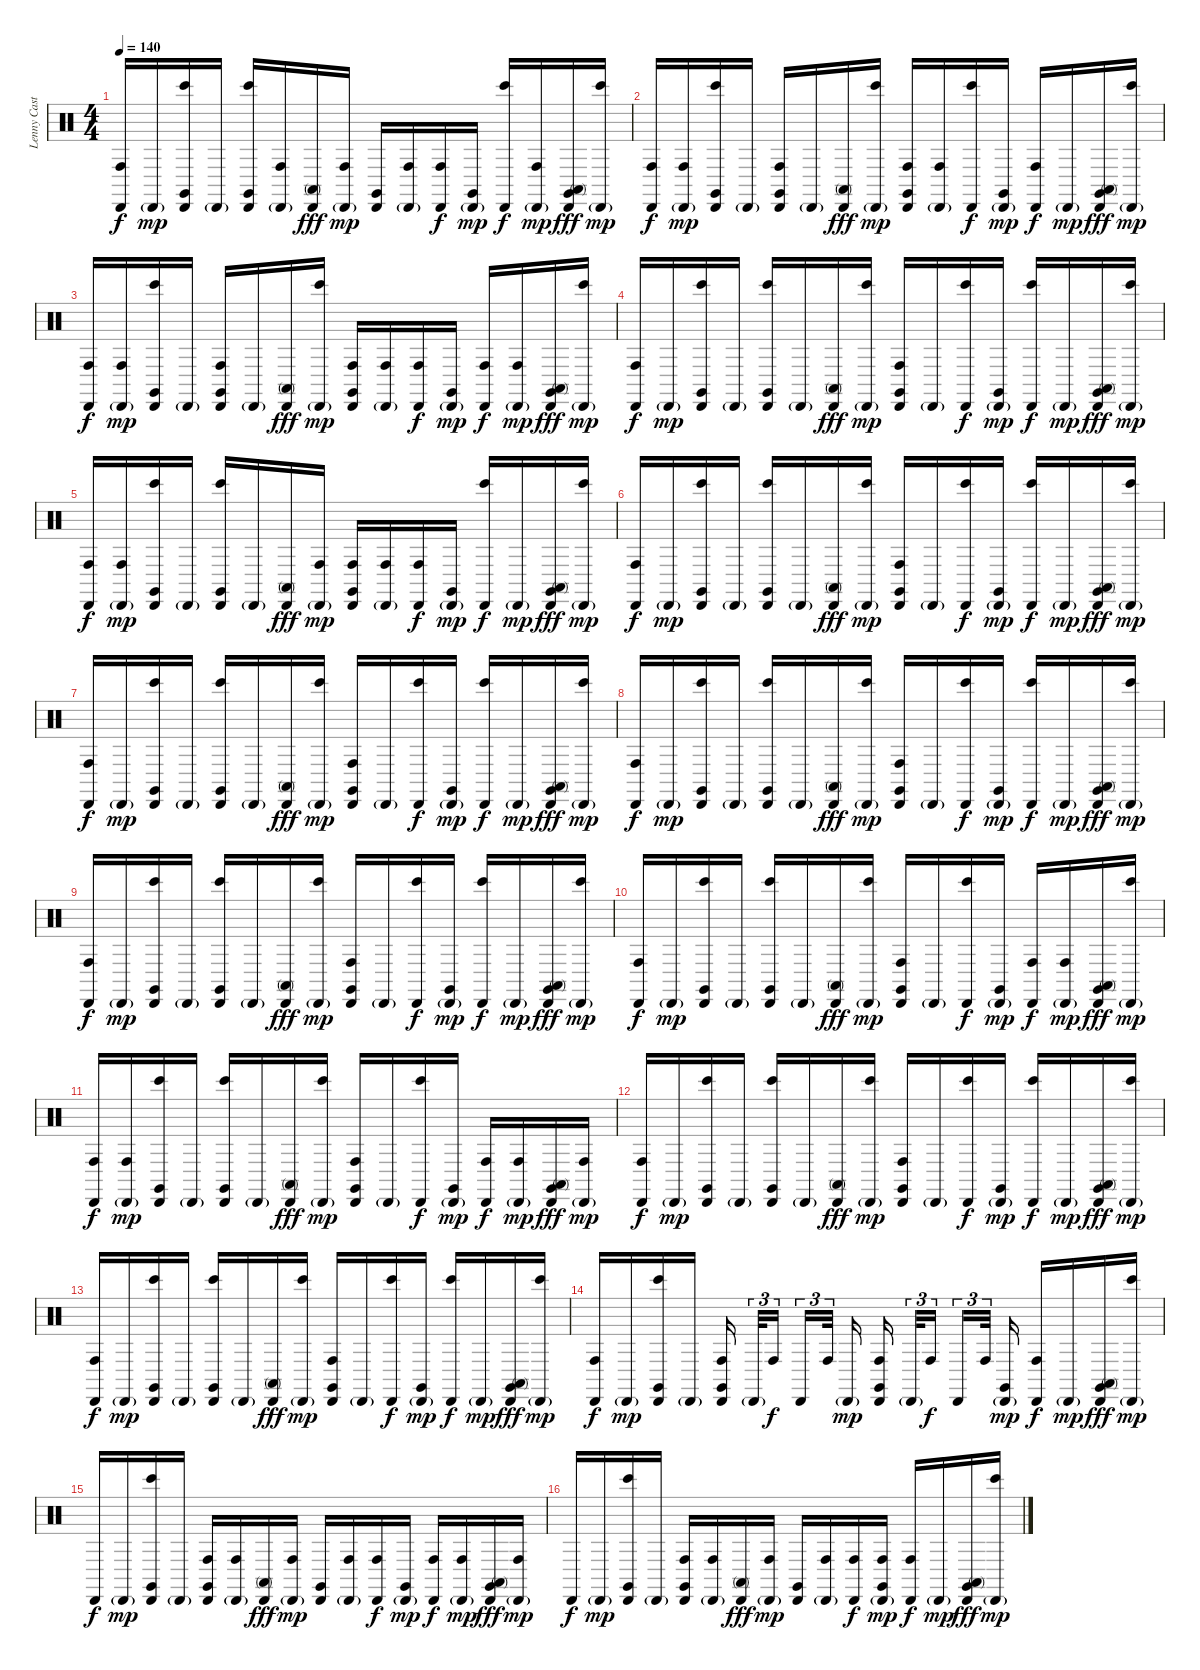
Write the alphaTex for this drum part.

\track ("Lenny Castro - Percussion" "Lenny Cast") {instrument percussion}
\staff {score}
\articulation defaults
\ts (4 4)
\tempo 140
\clef neutral
\ks c
("Cabasa (hit)" "Conga high (hit)").16{dy f} "Cabasa (hit)"{g}.16{dy mp} ("Claves (hit)" "Cabasa (hit)" "Bongo High (hit)").16 "Cabasa (hit)"{g}.16 ("Claves (hit)" "Cabasa (hit)" "Bongo High (hit)").16 ("Cabasa (hit)"{g} "Conga high (hit)").16 ("Cabasa (hit)" "Conga high (mute)").16{dy fff} ("Cabasa (hit)"{g} "Conga high (hit)").16{dy mp} ("Claves (hit)" "Cabasa (hit)").16 ("Cabasa (hit)"{g} "Conga high (hit)").16 ("Cabasa (hit)" "Conga high (hit)").16{dy f} ("Claves (hit)" "Cabasa (hit)"{g}).16{dy mp} ("Cabasa (hit)" "Bongo High (hit)").16{dy f} ("Cabasa (hit)"{g} "Conga high (hit)").16{dy mp} ("Claves (hit)" "Cabasa (hit)" "Conga high (mute)").16{dy fff} ("Cabasa (hit)"{g} "Bongo High (hit)").16{dy mp} |
("Cabasa (hit)" "Conga high (hit)").16{dy f} ("Cabasa (hit)"{g} "Conga high (hit)").16{dy mp} ("Claves (hit)" "Cabasa (hit)" "Bongo High (hit)").16 "Cabasa (hit)"{g}.16 ("Claves (hit)" "Cabasa (hit)" "Conga high (hit)").16 "Cabasa (hit)"{g}.16 ("Cabasa (hit)" "Conga high (mute)").16{dy fff} ("Cabasa (hit)"{g} "Bongo High (hit)").16{dy mp} ("Claves (hit)" "Cabasa (hit)" "Conga high (hit)").16 ("Cabasa (hit)"{g} "Conga high (hit)").16 ("Cabasa (hit)" "Bongo High (hit)").16{dy f} ("Claves (hit)" "Cabasa (hit)"{g}).16{dy mp} ("Cabasa (hit)" "Conga high (hit)").16{dy f} "Cabasa (hit)"{g}.16{dy mp} ("Claves (hit)" "Cabasa (hit)" "Conga high (mute)").16{dy fff} ("Cabasa (hit)"{g} "Bongo High (hit)").16{dy mp} |
("Cabasa (hit)" "Conga high (hit)").16{dy f} ("Cabasa (hit)"{g} "Conga high (hit)").16{dy mp} ("Claves (hit)" "Cabasa (hit)" "Bongo High (hit)").16 "Cabasa (hit)"{g}.16 ("Claves (hit)" "Cabasa (hit)" "Conga high (hit)").16 "Cabasa (hit)"{g}.16 ("Cabasa (hit)" "Conga high (mute)").16{dy fff} ("Cabasa (hit)"{g} "Bongo High (hit)").16{dy mp} ("Claves (hit)" "Cabasa (hit)" "Conga high (hit)").16 ("Cabasa (hit)"{g} "Conga high (hit)").16 ("Cabasa (hit)" "Conga high (hit)").16{dy f} ("Claves (hit)" "Cabasa (hit)"{g}).16{dy mp} ("Cabasa (hit)" "Conga high (hit)").16{dy f} ("Cabasa (hit)"{g} "Conga high (hit)").16{dy mp} ("Claves (hit)" "Cabasa (hit)" "Conga high (mute)").16{dy fff} ("Cabasa (hit)"{g} "Bongo High (hit)").16{dy mp} |
("Cabasa (hit)" "Conga high (hit)").16{dy f} "Cabasa (hit)"{g}.16{dy mp} ("Claves (hit)" "Cabasa (hit)" "Bongo High (hit)").16 "Cabasa (hit)"{g}.16 ("Claves (hit)" "Cabasa (hit)" "Bongo High (hit)").16 "Cabasa (hit)"{g}.16 ("Cabasa (hit)" "Conga high (mute)").16{dy fff} ("Cabasa (hit)"{g} "Bongo High (hit)").16{dy mp} ("Claves (hit)" "Cabasa (hit)" "Conga high (hit)").16 "Cabasa (hit)"{g}.16 ("Cabasa (hit)" "Bongo High (hit)").16{dy f} ("Claves (hit)" "Cabasa (hit)"{g}).16{dy mp} ("Cabasa (hit)" "Bongo High (hit)").16{dy f} "Cabasa (hit)"{g}.16{dy mp} ("Claves (hit)" "Cabasa (hit)" "Conga high (mute)").16{dy fff} ("Cabasa (hit)"{g} "Bongo High (hit)").16{dy mp} |
("Cabasa (hit)" "Conga high (hit)").16{dy f} ("Cabasa (hit)"{g} "Conga high (hit)").16{dy mp} ("Claves (hit)" "Cabasa (hit)" "Bongo High (hit)").16 "Cabasa (hit)"{g}.16 ("Claves (hit)" "Cabasa (hit)" "Bongo High (hit)").16 "Cabasa (hit)"{g}.16 ("Cabasa (hit)" "Conga high (mute)").16{dy fff} ("Cabasa (hit)"{g} "Conga high (hit)").16{dy mp} ("Claves (hit)" "Cabasa (hit)" "Conga high (hit)").16 ("Cabasa (hit)"{g} "Conga high (hit)").16 ("Cabasa (hit)" "Conga high (hit)").16{dy f} ("Claves (hit)" "Cabasa (hit)"{g}).16{dy mp} ("Cabasa (hit)" "Bongo High (hit)").16{dy f} "Cabasa (hit)"{g}.16{dy mp} ("Claves (hit)" "Cabasa (hit)" "Conga high (mute)").16{dy fff} ("Cabasa (hit)"{g} "Bongo High (hit)").16{dy mp} |
("Cabasa (hit)" "Conga high (hit)").16{dy f} "Cabasa (hit)"{g}.16{dy mp} ("Claves (hit)" "Cabasa (hit)" "Bongo High (hit)").16 "Cabasa (hit)"{g}.16 ("Claves (hit)" "Cabasa (hit)" "Bongo High (hit)").16 "Cabasa (hit)"{g}.16 ("Cabasa (hit)" "Conga high (mute)").16{dy fff} ("Cabasa (hit)"{g} "Bongo High (hit)").16{dy mp} ("Claves (hit)" "Cabasa (hit)" "Conga high (hit)").16 "Cabasa (hit)"{g}.16 ("Cabasa (hit)" "Bongo High (hit)").16{dy f} ("Claves (hit)" "Cabasa (hit)"{g}).16{dy mp} ("Cabasa (hit)" "Bongo High (hit)").16{dy f} "Cabasa (hit)"{g}.16{dy mp} ("Claves (hit)" "Cabasa (hit)" "Conga high (mute)").16{dy fff} ("Cabasa (hit)"{g} "Bongo High (hit)").16{dy mp} |
("Cabasa (hit)" "Conga high (hit)").16{dy f} "Cabasa (hit)"{g}.16{dy mp} ("Claves (hit)" "Cabasa (hit)" "Bongo High (hit)").16 "Cabasa (hit)"{g}.16 ("Claves (hit)" "Cabasa (hit)" "Bongo High (hit)").16 "Cabasa (hit)"{g}.16 ("Cabasa (hit)" "Conga high (mute)").16{dy fff} ("Cabasa (hit)"{g} "Bongo High (hit)").16{dy mp} ("Claves (hit)" "Cabasa (hit)" "Conga high (hit)").16 "Cabasa (hit)"{g}.16 ("Cabasa (hit)" "Bongo High (hit)").16{dy f} ("Claves (hit)" "Cabasa (hit)"{g}).16{dy mp} ("Cabasa (hit)" "Bongo High (hit)").16{dy f} "Cabasa (hit)"{g}.16{dy mp} ("Claves (hit)" "Cabasa (hit)" "Conga high (mute)").16{dy fff} ("Cabasa (hit)"{g} "Bongo High (hit)").16{dy mp} |
("Cabasa (hit)" "Conga high (hit)").16{dy f} "Cabasa (hit)"{g}.16{dy mp} ("Claves (hit)" "Cabasa (hit)" "Bongo High (hit)").16 "Cabasa (hit)"{g}.16 ("Claves (hit)" "Cabasa (hit)" "Bongo High (hit)").16 "Cabasa (hit)"{g}.16 ("Cabasa (hit)" "Conga high (mute)").16{dy fff} ("Cabasa (hit)"{g} "Bongo High (hit)").16{dy mp} ("Claves (hit)" "Cabasa (hit)" "Conga high (hit)").16 "Cabasa (hit)"{g}.16 ("Cabasa (hit)" "Bongo High (hit)").16{dy f} ("Claves (hit)" "Cabasa (hit)"{g}).16{dy mp} ("Cabasa (hit)" "Bongo High (hit)").16{dy f} "Cabasa (hit)"{g}.16{dy mp} ("Claves (hit)" "Cabasa (hit)" "Conga high (mute)").16{dy fff} ("Cabasa (hit)"{g} "Bongo High (hit)").16{dy mp} |
("Cabasa (hit)" "Conga high (hit)").16{dy f} "Cabasa (hit)"{g}.16{dy mp} ("Claves (hit)" "Cabasa (hit)" "Bongo High (hit)").16 "Cabasa (hit)"{g}.16 ("Claves (hit)" "Cabasa (hit)" "Bongo High (hit)").16 "Cabasa (hit)"{g}.16 ("Cabasa (hit)" "Conga high (mute)").16{dy fff} ("Cabasa (hit)"{g} "Bongo High (hit)").16{dy mp} ("Claves (hit)" "Cabasa (hit)" "Conga high (hit)").16 "Cabasa (hit)"{g}.16 ("Cabasa (hit)" "Bongo High (hit)").16{dy f} ("Claves (hit)" "Cabasa (hit)"{g}).16{dy mp} ("Cabasa (hit)" "Bongo High (hit)").16{dy f} "Cabasa (hit)"{g}.16{dy mp} ("Claves (hit)" "Cabasa (hit)" "Conga high (mute)").16{dy fff} ("Cabasa (hit)"{g} "Bongo High (hit)").16{dy mp} |
("Cabasa (hit)" "Conga high (hit)").16{dy f} "Cabasa (hit)"{g}.16{dy mp} ("Claves (hit)" "Cabasa (hit)" "Bongo High (hit)").16 "Cabasa (hit)"{g}.16 ("Claves (hit)" "Cabasa (hit)" "Bongo High (hit)").16 "Cabasa (hit)"{g}.16 ("Cabasa (hit)" "Conga high (mute)").16{dy fff} ("Cabasa (hit)"{g} "Bongo High (hit)").16{dy mp} ("Claves (hit)" "Cabasa (hit)" "Conga high (hit)").16 "Cabasa (hit)"{g}.16 ("Cabasa (hit)" "Bongo High (hit)").16{dy f} ("Claves (hit)" "Cabasa (hit)"{g}).16{dy mp} ("Cabasa (hit)" "Conga high (hit)").16{dy f} ("Cabasa (hit)"{g} "Conga high (hit)").16{dy mp} ("Claves (hit)" "Cabasa (hit)" "Conga high (mute)").16{dy fff} ("Cabasa (hit)"{g} "Bongo High (hit)").16{dy mp} |
("Cabasa (hit)" "Conga high (hit)").16{dy f} ("Cabasa (hit)"{g} "Conga high (hit)").16{dy mp} ("Claves (hit)" "Cabasa (hit)" "Bongo High (hit)").16 "Cabasa (hit)"{g}.16 ("Claves (hit)" "Cabasa (hit)" "Bongo High (hit)").16 "Cabasa (hit)"{g}.16 ("Cabasa (hit)" "Conga high (mute)").16{dy fff} ("Cabasa (hit)"{g} "Bongo High (hit)").16{dy mp} ("Claves (hit)" "Cabasa (hit)" "Conga high (hit)").16 "Cabasa (hit)"{g}.16 ("Cabasa (hit)" "Bongo High (hit)").16{dy f} ("Claves (hit)" "Cabasa (hit)"{g}).16{dy mp} ("Cabasa (hit)" "Conga high (hit)").16{dy f} ("Cabasa (hit)"{g} "Conga high (hit)").16{dy mp} ("Claves (hit)" "Cabasa (hit)" "Conga high (mute)").16{dy fff} ("Cabasa (hit)"{g} "Conga high (hit)").16{dy mp} |
("Cabasa (hit)" "Conga high (hit)").16{dy f} "Cabasa (hit)"{g}.16{dy mp} ("Claves (hit)" "Cabasa (hit)" "Bongo High (hit)").16 "Cabasa (hit)"{g}.16 ("Claves (hit)" "Cabasa (hit)" "Bongo High (hit)").16 "Cabasa (hit)"{g}.16 ("Cabasa (hit)" "Conga high (mute)").16{dy fff} ("Cabasa (hit)"{g} "Bongo High (hit)").16{dy mp} ("Claves (hit)" "Cabasa (hit)" "Conga high (hit)").16 "Cabasa (hit)"{g}.16 ("Cabasa (hit)" "Bongo High (hit)").16{dy f} ("Claves (hit)" "Cabasa (hit)"{g}).16{dy mp} ("Cabasa (hit)" "Bongo High (hit)").16{dy f} "Cabasa (hit)"{g}.16{dy mp} ("Claves (hit)" "Cabasa (hit)" "Conga high (mute)").16{dy fff} ("Cabasa (hit)"{g} "Bongo High (hit)").16{dy mp} |
("Cabasa (hit)" "Conga high (hit)").16{dy f} "Cabasa (hit)"{g}.16{dy mp} ("Claves (hit)" "Cabasa (hit)" "Bongo High (hit)").16 "Cabasa (hit)"{g}.16 ("Claves (hit)" "Cabasa (hit)" "Bongo High (hit)").16 "Cabasa (hit)"{g}.16 ("Cabasa (hit)" "Conga high (mute)").16{dy fff} ("Cabasa (hit)"{g} "Bongo High (hit)").16{dy mp} ("Claves (hit)" "Cabasa (hit)" "Conga high (hit)").16 "Cabasa (hit)"{g}.16 ("Cabasa (hit)" "Bongo High (hit)").16{dy f} ("Claves (hit)" "Cabasa (hit)"{g}).16{dy mp} ("Cabasa (hit)" "Bongo High (hit)").16{dy f} "Cabasa (hit)"{g}.16{dy mp} ("Claves (hit)" "Cabasa (hit)" "Conga high (mute)").16{dy fff} ("Cabasa (hit)"{g} "Bongo High (hit)").16{dy mp} |
("Cabasa (hit)" "Conga high (hit)").16{dy f} "Cabasa (hit)"{g}.16{dy mp} ("Claves (hit)" "Cabasa (hit)" "Bongo High (hit)").16 "Cabasa (hit)"{g}.16 ("Claves (hit)" "Cabasa (hit)" "Conga high (hit)").16{beam splitsecondary} "Cabasa (hit)"{g}.32{tu (3 2)} "Conga high (hit)".16{tu (3 2) dy f beam splitsecondary} "Cabasa (hit)".16{tu (3 2)} "Conga high (hit)".32{tu (3 2) beam splitsecondary} "Cabasa (hit)"{g}.16{dy mp} ("Claves (hit)" "Cabasa (hit)" "Conga high (hit)").16{beam splitsecondary} "Cabasa (hit)"{g}.32{tu (3 2)} "Conga high (hit)".16{tu (3 2) dy f beam splitsecondary} "Cabasa (hit)".16{tu (3 2)} "Conga high (hit)".32{tu (3 2) beam splitsecondary} ("Claves (hit)" "Cabasa (hit)"{g}).16{dy mp} ("Cabasa (hit)" "Conga high (hit)").16{dy f} "Cabasa (hit)"{g}.16{dy mp} ("Claves (hit)" "Cabasa (hit)" "Conga high (mute)").16{dy fff} ("Cabasa (hit)"{g} "Bongo High (hit)").16{dy mp} |
"Cabasa (hit)".16{dy f} "Cabasa (hit)"{g}.16{dy mp} ("Claves (hit)" "Cabasa (hit)" "Bongo High (hit)").16 "Cabasa (hit)"{g}.16 ("Claves (hit)" "Cabasa (hit)" "Conga high (hit)").16 ("Cabasa (hit)"{g} "Conga high (hit)").16 ("Cabasa (hit)" "Conga high (mute)").16{dy fff} ("Cabasa (hit)"{g} "Conga high (hit)").16{dy mp} ("Claves (hit)" "Cabasa (hit)").16 ("Cabasa (hit)"{g} "Conga high (hit)").16 ("Cabasa (hit)" "Conga high (hit)").16{dy f} ("Claves (hit)" "Cabasa (hit)"{g}).16{dy mp} ("Cabasa (hit)" "Conga high (hit)").16{dy f} ("Cabasa (hit)"{g} "Conga high (hit)").16{dy mp} ("Claves (hit)" "Cabasa (hit)" "Conga high (mute)").16{dy fff} ("Cabasa (hit)"{g} "Conga high (hit)").16{dy mp} |
"Cabasa (hit)".16{dy f} "Cabasa (hit)"{g}.16{dy mp} ("Claves (hit)" "Cabasa (hit)" "Bongo High (hit)").16 "Cabasa (hit)"{g}.16 ("Claves (hit)" "Cabasa (hit)" "Conga high (hit)").16 ("Cabasa (hit)"{g} "Conga high (hit)").16 ("Cabasa (hit)" "Conga high (mute)").16{dy fff} ("Cabasa (hit)"{g} "Conga high (hit)").16{dy mp} ("Claves (hit)" "Cabasa (hit)").16 ("Cabasa (hit)"{g} "Conga high (hit)").16 ("Cabasa (hit)" "Conga high (hit)").16{dy f} ("Claves (hit)" "Cabasa (hit)"{g} "Conga high (hit)").16{dy mp} ("Cabasa (hit)" "Conga high (hit)").16{dy f} "Cabasa (hit)"{g}.16{dy mp} ("Claves (hit)" "Cabasa (hit)" "Conga high (mute)").16{dy fff} ("Cabasa (hit)"{g} "Bongo High (hit)").16{dy mp}
